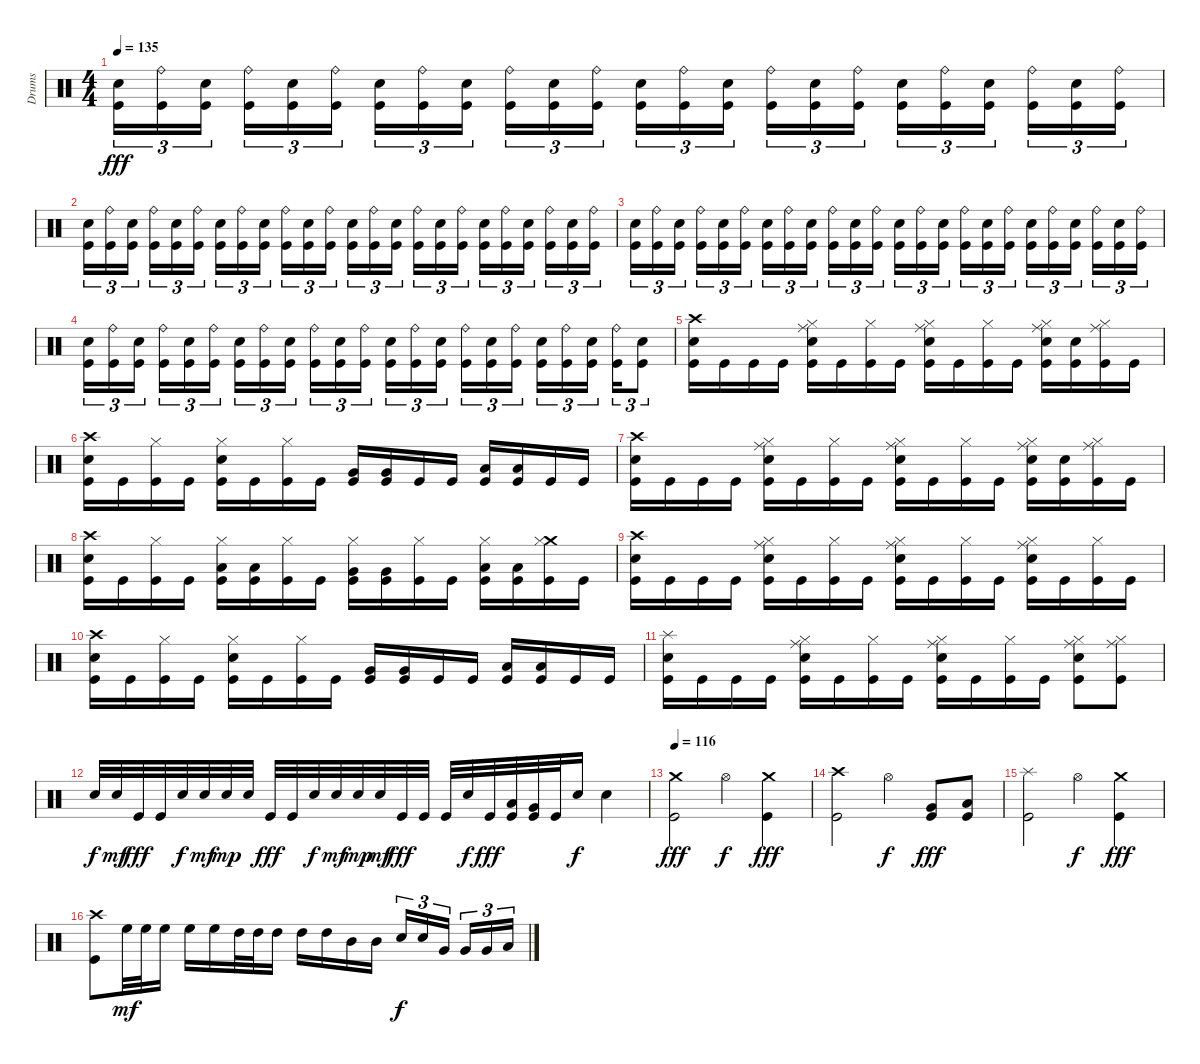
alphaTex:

\track ("Drums" "Drums") {instrument percussion}
\staff {score}
\articulation defaults
\ts (4 4)
\tempo 135
\clef neutral
\ks c
("Electric Snare (hit)" "Kick (hit)").16{tu (3 2) dy fff} ("Ride (bell)" "Kick (hit)").16{tu (3 2)} ("Electric Snare (hit)" "Kick (hit)").16{tu (3 2) beam splitsecondary} ("Ride (bell)" "Kick (hit)").16{tu (3 2)} ("Electric Snare (hit)" "Kick (hit)").16{tu (3 2)} ("Ride (bell)" "Kick (hit)").16{tu (3 2)} ("Electric Snare (hit)" "Kick (hit)").16{tu (3 2)} ("Ride (bell)" "Kick (hit)").16{tu (3 2)} ("Electric Snare (hit)" "Kick (hit)").16{tu (3 2) beam splitsecondary} ("Ride (bell)" "Kick (hit)").16{tu (3 2)} ("Electric Snare (hit)" "Kick (hit)").16{tu (3 2)} ("Ride (bell)" "Kick (hit)").16{tu (3 2)} ("Electric Snare (hit)" "Kick (hit)").16{tu (3 2)} ("Ride (bell)" "Kick (hit)").16{tu (3 2)} ("Electric Snare (hit)" "Kick (hit)").16{tu (3 2) beam splitsecondary} ("Ride (bell)" "Kick (hit)").16{tu (3 2)} ("Electric Snare (hit)" "Kick (hit)").16{tu (3 2)} ("Ride (bell)" "Kick (hit)").16{tu (3 2)} ("Electric Snare (hit)" "Kick (hit)").16{tu (3 2)} ("Ride (bell)" "Kick (hit)").16{tu (3 2)} ("Electric Snare (hit)" "Kick (hit)").16{tu (3 2) beam splitsecondary} ("Ride (bell)" "Kick (hit)").16{tu (3 2)} ("Electric Snare (hit)" "Kick (hit)").16{tu (3 2)} ("Ride (bell)" "Kick (hit)").16{tu (3 2)} |
("Electric Snare (hit)" "Kick (hit)").16{tu (3 2)} ("Ride (bell)" "Kick (hit)").16{tu (3 2)} ("Electric Snare (hit)" "Kick (hit)").16{tu (3 2) beam splitsecondary} ("Ride (bell)" "Kick (hit)").16{tu (3 2)} ("Electric Snare (hit)" "Kick (hit)").16{tu (3 2)} ("Ride (bell)" "Kick (hit)").16{tu (3 2)} ("Electric Snare (hit)" "Kick (hit)").16{tu (3 2)} ("Ride (bell)" "Kick (hit)").16{tu (3 2)} ("Electric Snare (hit)" "Kick (hit)").16{tu (3 2) beam splitsecondary} ("Ride (bell)" "Kick (hit)").16{tu (3 2)} ("Electric Snare (hit)" "Kick (hit)").16{tu (3 2)} ("Ride (bell)" "Kick (hit)").16{tu (3 2)} ("Electric Snare (hit)" "Kick (hit)").16{tu (3 2)} ("Ride (bell)" "Kick (hit)").16{tu (3 2)} ("Electric Snare (hit)" "Kick (hit)").16{tu (3 2) beam splitsecondary} ("Ride (bell)" "Kick (hit)").16{tu (3 2)} ("Electric Snare (hit)" "Kick (hit)").16{tu (3 2)} ("Ride (bell)" "Kick (hit)").16{tu (3 2)} ("Electric Snare (hit)" "Kick (hit)").16{tu (3 2)} ("Ride (bell)" "Kick (hit)").16{tu (3 2)} ("Electric Snare (hit)" "Kick (hit)").16{tu (3 2) beam splitsecondary} ("Ride (bell)" "Kick (hit)").16{tu (3 2)} ("Electric Snare (hit)" "Kick (hit)").16{tu (3 2)} ("Ride (bell)" "Kick (hit)").16{tu (3 2)} |
("Electric Snare (hit)" "Kick (hit)").16{tu (3 2)} ("Ride (bell)" "Kick (hit)").16{tu (3 2)} ("Electric Snare (hit)" "Kick (hit)").16{tu (3 2) beam splitsecondary} ("Ride (bell)" "Kick (hit)").16{tu (3 2)} ("Electric Snare (hit)" "Kick (hit)").16{tu (3 2)} ("Ride (bell)" "Kick (hit)").16{tu (3 2)} ("Electric Snare (hit)" "Kick (hit)").16{tu (3 2)} ("Ride (bell)" "Kick (hit)").16{tu (3 2)} ("Electric Snare (hit)" "Kick (hit)").16{tu (3 2) beam splitsecondary} ("Ride (bell)" "Kick (hit)").16{tu (3 2)} ("Electric Snare (hit)" "Kick (hit)").16{tu (3 2)} ("Ride (bell)" "Kick (hit)").16{tu (3 2)} ("Electric Snare (hit)" "Kick (hit)").16{tu (3 2)} ("Ride (bell)" "Kick (hit)").16{tu (3 2)} ("Electric Snare (hit)" "Kick (hit)").16{tu (3 2) beam splitsecondary} ("Ride (bell)" "Kick (hit)").16{tu (3 2)} ("Electric Snare (hit)" "Kick (hit)").16{tu (3 2)} ("Ride (bell)" "Kick (hit)").16{tu (3 2)} ("Electric Snare (hit)" "Kick (hit)").16{tu (3 2)} ("Ride (bell)" "Kick (hit)").16{tu (3 2)} ("Electric Snare (hit)" "Kick (hit)").16{tu (3 2) beam splitsecondary} ("Ride (bell)" "Kick (hit)").16{tu (3 2)} ("Electric Snare (hit)" "Kick (hit)").16{tu (3 2)} ("Ride (bell)" "Kick (hit)").16{tu (3 2)} |
("Electric Snare (hit)" "Kick (hit)").16{tu (3 2)} ("Ride (bell)" "Kick (hit)").16{tu (3 2)} ("Electric Snare (hit)" "Kick (hit)").16{tu (3 2) beam splitsecondary} ("Ride (bell)" "Kick (hit)").16{tu (3 2)} ("Electric Snare (hit)" "Kick (hit)").16{tu (3 2)} ("Ride (bell)" "Kick (hit)").16{tu (3 2)} ("Electric Snare (hit)" "Kick (hit)").16{tu (3 2)} ("Ride (bell)" "Kick (hit)").16{tu (3 2)} ("Electric Snare (hit)" "Kick (hit)").16{tu (3 2) beam splitsecondary} ("Ride (bell)" "Kick (hit)").16{tu (3 2)} ("Electric Snare (hit)" "Kick (hit)").16{tu (3 2)} ("Ride (bell)" "Kick (hit)").16{tu (3 2)} ("Electric Snare (hit)" "Kick (hit)").16{tu (3 2)} ("Ride (bell)" "Kick (hit)").16{tu (3 2)} ("Electric Snare (hit)" "Kick (hit)").16{tu (3 2) beam splitsecondary} ("Ride (bell)" "Kick (hit)").16{tu (3 2)} ("Electric Snare (hit)" "Kick (hit)").16{tu (3 2)} ("Ride (bell)" "Kick (hit)").16{tu (3 2)} ("Electric Snare (hit)" "Kick (hit)").16{tu (3 2)} ("Ride (bell)" "Kick (hit)").16{tu (3 2)} ("Electric Snare (hit)" "Kick (hit)").16{tu (3 2) beam splitsecondary} ("Ride (bell)" "Kick (hit)").16{tu (3 2)} ("Electric Snare (hit)" "Kick (hit)").8{tu (3 2)} |
("Crash high (hit)" "Electric Snare (hit)" "Kick (hit)").16 "Kick (hit)".16 "Kick (hit)".16 "Kick (hit)".16 ("Ride (middle)" "Hi-Hat (closed)" "Electric Snare (hit)" "Kick (hit)").16 "Kick (hit)".16 ("Hi-Hat (closed)" "Kick (hit)").16 "Kick (hit)".16 ("Ride (middle)" "Hi-Hat (closed)" "Electric Snare (hit)" "Kick (hit)").16 "Kick (hit)".16 ("Hi-Hat (closed)" "Kick (hit)").16 "Kick (hit)".16 ("Ride (middle)" "Hi-Hat (closed)" "Electric Snare (hit)" "Kick (hit)").16 ("Electric Snare (hit)" "Kick (hit)").16 ("Ride (middle)" "Hi-Hat (closed)" "Kick (hit)").16 "Kick (hit)".16 |
("Crash high (hit)" "Electric Snare (hit)" "Kick (hit)").16 "Kick (hit)".16 ("Hi-Hat (closed)" "Kick (hit)").16 "Kick (hit)".16 ("Hi-Hat (closed)" "Electric Snare (hit)" "Kick (hit)").16 "Kick (hit)".16 ("Hi-Hat (closed)" "Kick (hit)").16 "Kick (hit)".16 ("Very Low Tom (hit)" "Kick (hit)").16 ("Very Low Tom (hit)" "Kick (hit)").16 "Kick (hit)".16 "Kick (hit)".16 ("Low Floor Tom (hit)" "Kick (hit)").16 ("Low Floor Tom (hit)" "Kick (hit)").16 "Kick (hit)".16 "Kick (hit)".16 |
("Crash high (hit)" "Electric Snare (hit)" "Kick (hit)").16 "Kick (hit)".16 "Kick (hit)".16 "Kick (hit)".16 ("Ride (middle)" "Hi-Hat (closed)" "Electric Snare (hit)" "Kick (hit)").16 "Kick (hit)".16 ("Hi-Hat (closed)" "Kick (hit)").16 "Kick (hit)".16 ("Ride (middle)" "Hi-Hat (closed)" "Electric Snare (hit)" "Kick (hit)").16 "Kick (hit)".16 ("Hi-Hat (closed)" "Kick (hit)").16 "Kick (hit)".16 ("Ride (middle)" "Hi-Hat (closed)" "Electric Snare (hit)" "Kick (hit)").16 ("Electric Snare (hit)" "Kick (hit)").16 ("Ride (middle)" "Hi-Hat (closed)" "Kick (hit)").16 "Kick (hit)".16 |
("Crash high (hit)" "Electric Snare (hit)" "Kick (hit)").16 "Kick (hit)".16 ("Hi-Hat (closed)" "Kick (hit)").16 "Kick (hit)".16 ("Hi-Hat (closed)" "Low Tom (hit)" "Kick (hit)").16 ("Low Tom (hit)" "Kick (hit)").16 ("Hi-Hat (closed)" "Kick (hit)").16 "Kick (hit)".16 ("Hi-Hat (closed)" "Very Low Tom (hit)" "Kick (hit)").16 ("Very Low Tom (hit)" "Kick (hit)").16 ("Hi-Hat (closed)" "Kick (hit)").16 "Kick (hit)".16 ("Hi-Hat (closed)" "Low Floor Tom (hit)" "Kick (hit)").16 ("Low Floor Tom (hit)" "Kick (hit)").16 ("Crash medium (hit)" "Hi-Hat (closed)" "Kick (hit)").16 "Kick (hit)".16 |
("Crash high (hit)" "Electric Snare (hit)" "Kick (hit)").16 "Kick (hit)".16 "Kick (hit)".16 "Kick (hit)".16 ("Ride (middle)" "Hi-Hat (closed)" "Electric Snare (hit)" "Kick (hit)").16 "Kick (hit)".16 ("Hi-Hat (closed)" "Kick (hit)").16 "Kick (hit)".16 ("Ride (middle)" "Hi-Hat (closed)" "Electric Snare (hit)" "Kick (hit)").16 "Kick (hit)".16 ("Hi-Hat (closed)" "Kick (hit)").16 "Kick (hit)".16 ("Ride (middle)" "Hi-Hat (closed)" "Electric Snare (hit)" "Kick (hit)").16 "Kick (hit)".16 ("Hi-Hat (closed)" "Kick (hit)").16 "Kick (hit)".16 |
("Crash high (hit)" "Electric Snare (hit)" "Kick (hit)").16 "Kick (hit)".16 ("Hi-Hat (closed)" "Kick (hit)").16 "Kick (hit)".16 ("Hi-Hat (closed)" "Electric Snare (hit)" "Kick (hit)").16 "Kick (hit)".16 ("Hi-Hat (closed)" "Kick (hit)").16 "Kick (hit)".16 ("Very Low Tom (hit)" "Kick (hit)").16 ("Very Low Tom (hit)" "Kick (hit)").16 "Kick (hit)".16 "Kick (hit)".16 ("Low Floor Tom (hit)" "Kick (hit)").16 ("Low Floor Tom (hit)" "Kick (hit)").16 "Kick (hit)".16 "Kick (hit)".16 |
("Splash (hit)" "Electric Snare (hit)" "Kick (hit)").16 "Kick (hit)".16 "Kick (hit)".16 "Kick (hit)".16 ("Ride (middle)" "Hi-Hat (closed)" "Electric Snare (hit)" "Kick (hit)").16 "Kick (hit)".16 ("Hi-Hat (closed)" "Kick (hit)").16 "Kick (hit)".16 ("Ride (middle)" "Hi-Hat (closed)" "Electric Snare (hit)" "Kick (hit)").16 "Kick (hit)".16 ("Hi-Hat (closed)" "Kick (hit)").16 "Kick (hit)".16 ("Ride (middle)" "Hi-Hat (closed)" "Electric Snare (hit)" "Kick (hit)").8 ("Ride (middle)" "Hi-Hat (closed)" "Kick (hit)").8 |
"Electric Snare (hit)".32{dy f} "Electric Snare (hit)".32{dy mf} "Kick (hit)".32{dy fff} "Kick (hit)".32 "Electric Snare (hit)".32{dy f} "Electric Snare (hit)".32{dy mf} "Electric Snare (hit)".32{dy mp} "Electric Snare (hit)".32 "Kick (hit)".32{dy fff} "Kick (hit)".32 "Electric Snare (hit)".32{dy f} "Electric Snare (hit)".32{dy mf} "Electric Snare (hit)".32{dy mp} "Electric Snare (hit)".32{dy mf} "Kick (hit)".32{dy fff} "Kick (hit)".32 "Kick (hit)".32 "Electric Snare (hit)".32{dy f} "Kick (hit)".32{dy fff} ("Low Tom (hit)" "Kick (hit)").32 ("Very Low Tom (hit)" "Kick (hit)").32 "Kick (hit)".32 "Electric Snare (hit)".16{dy f} "Electric Snare (hit)".4 |
\tempo 116
("Crash medium (hit)" "Kick (hit)").2{dy fff} "Hi-Hat (open)".4{dy f} ("Crash medium (hit)" "Kick (hit)").4{dy fff} |
("Crash high (hit)" "Kick (hit)").2 "Hi-Hat (open)".4{dy f} ("Very Low Tom (hit)" "Kick (hit)").8{dy fff} ("Low Floor Tom (hit)" "Kick (hit)").8 |
("Splash (hit)" "Kick (hit)").2 "Hi-Hat (open)".4{dy f} ("Crash medium (hit)" "Kick (hit)").4{dy fff} |
("Crash high (hit)" "Kick (hit)").8 "High Floor Tom (hit)".32{dy mf} "High Floor Tom (hit)".32 "High Floor Tom (hit)".16 "High Floor Tom (hit)".16 "High Floor Tom (hit)".16 "High Tom (hit)".32 "High Tom (hit)".32 "High Tom (hit)".16 "High Tom (hit)".16 "High Tom (hit)".16 "Mid Tom (hit)".16 "Mid Tom (hit)".16 "Electric Snare (hit)".16{tu (3 2) dy f} "Electric Snare (hit)".16{tu (3 2)} "Very Low Tom (hit)".16{tu (3 2) beam splitsecondary} "Very Low Tom (hit)".16{tu (3 2)} "Very Low Tom (hit)".16{tu (3 2)} "Low Floor Tom (hit)".16{tu (3 2)}
